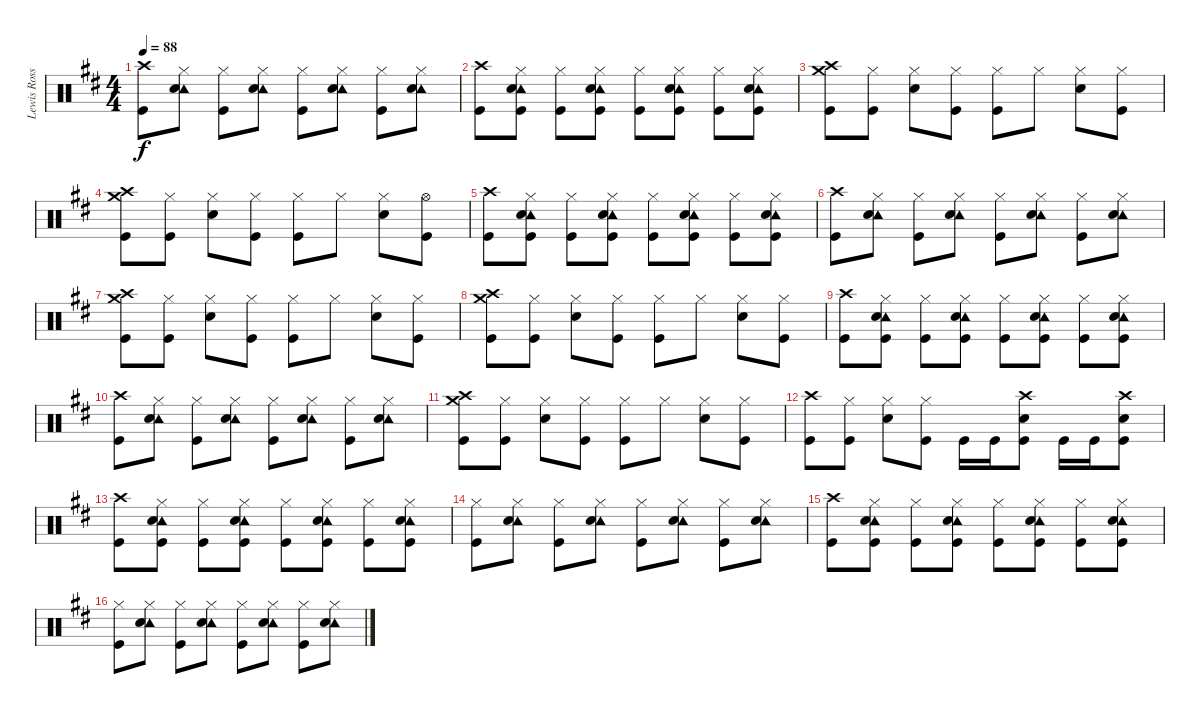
\track ("Lewis Ross Drums" "Lewis Ross") {instrument percussion}
\staff {score}
\articulation defaults
\ts (4 4)
\tempo 88
\clef neutral
\ks d
("Crash high (hit)" "Kick (hit)").8{dy f} ("Hi-Hat (closed)" "Tambourine (hit)" "Snare (hit) 2").8 ("Hi-Hat (closed)" "Kick (hit)").8 ("Hi-Hat (closed)" "Tambourine (hit)" "Snare (hit) 2").8 ("Hi-Hat (closed)" "Kick (hit)").8 ("Hi-Hat (closed)" "Tambourine (hit)" "Snare (hit) 2").8 ("Hi-Hat (closed)" "Kick (hit)").8 ("Hi-Hat (closed)" "Tambourine (hit)" "Snare (hit) 2").8 |
("Crash high (hit)" "Kick (hit)").8 ("Hi-Hat (closed)" "Tambourine (hit)" "Snare (hit) 2" "Kick (hit)").8 ("Hi-Hat (closed)" "Kick (hit)").8 ("Hi-Hat (closed)" "Tambourine (hit)" "Snare (hit) 2" "Kick (hit)").8 ("Hi-Hat (closed)" "Kick (hit)").8 ("Hi-Hat (closed)" "Tambourine (hit)" "Snare (hit) 2" "Kick (hit)").8 ("Hi-Hat (closed)" "Kick (hit)").8 ("Hi-Hat (closed)" "Tambourine (hit)" "Snare (hit) 2" "Kick (hit)").8 |
("Crash high (hit)" "Crash medium (hit)" "Kick (hit)").8 ("Hi-Hat (closed)" "Kick (hit)").8 ("Hi-Hat (closed)" "Snare (hit) 2").8 ("Hi-Hat (closed)" "Kick (hit)").8 ("Hi-Hat (closed)" "Kick (hit)").8 "Hi-Hat (closed)".8 ("Hi-Hat (closed)" "Snare (hit) 2").8 ("Hi-Hat (closed)" "Kick (hit)").8 |
("Crash high (hit)" "Crash medium (hit)" "Kick (hit)").8 ("Hi-Hat (closed)" "Kick (hit)").8 ("Hi-Hat (closed)" "Snare (hit) 2").8 ("Hi-Hat (closed)" "Kick (hit)").8 ("Hi-Hat (closed)" "Kick (hit)").8 "Hi-Hat (closed)".8 ("Hi-Hat (closed)" "Snare (hit) 2").8 ("Hi-Hat (open)" "Kick (hit)").8 |
("Crash high (hit)" "Kick (hit)").8 ("Hi-Hat (closed)" "Tambourine (hit)" "Snare (hit) 2" "Kick (hit)").8 ("Hi-Hat (closed)" "Kick (hit)").8 ("Hi-Hat (closed)" "Tambourine (hit)" "Snare (hit) 2" "Kick (hit)").8 ("Hi-Hat (closed)" "Kick (hit)").8 ("Hi-Hat (closed)" "Tambourine (hit)" "Snare (hit) 2" "Kick (hit)").8 ("Hi-Hat (closed)" "Kick (hit)").8 ("Hi-Hat (closed)" "Tambourine (hit)" "Snare (hit) 2" "Kick (hit)").8 |
("Crash high (hit)" "Kick (hit)").8 ("Hi-Hat (closed)" "Tambourine (hit)" "Snare (hit) 2").8 ("Hi-Hat (closed)" "Kick (hit)").8 ("Hi-Hat (closed)" "Tambourine (hit)" "Snare (hit) 2").8 ("Hi-Hat (closed)" "Kick (hit)").8 ("Hi-Hat (closed)" "Tambourine (hit)" "Snare (hit) 2").8 ("Hi-Hat (closed)" "Kick (hit)").8 ("Hi-Hat (closed)" "Tambourine (hit)" "Snare (hit) 2").8 |
("Crash high (hit)" "Crash medium (hit)" "Kick (hit)").8 ("Hi-Hat (closed)" "Kick (hit)").8 ("Hi-Hat (closed)" "Snare (hit) 2").8 ("Hi-Hat (closed)" "Kick (hit)").8 ("Hi-Hat (closed)" "Kick (hit)").8 "Hi-Hat (closed)".8 ("Hi-Hat (closed)" "Snare (hit) 2").8 ("Hi-Hat (closed)" "Kick (hit)").8 |
("Crash high (hit)" "Crash medium (hit)" "Kick (hit)").8 ("Hi-Hat (closed)" "Kick (hit)").8 ("Hi-Hat (closed)" "Snare (hit) 2").8 ("Hi-Hat (closed)" "Kick (hit)").8 ("Hi-Hat (closed)" "Kick (hit)").8 "Hi-Hat (closed)".8 ("Hi-Hat (closed)" "Snare (hit) 2").8 ("Hi-Hat (closed)" "Kick (hit)").8 |
("Crash high (hit)" "Kick (hit)").8 ("Hi-Hat (closed)" "Tambourine (hit)" "Snare (hit) 2" "Kick (hit)").8 ("Hi-Hat (closed)" "Kick (hit)").8 ("Hi-Hat (closed)" "Tambourine (hit)" "Snare (hit) 2" "Kick (hit)").8 ("Hi-Hat (closed)" "Kick (hit)").8 ("Hi-Hat (closed)" "Tambourine (hit)" "Snare (hit) 2" "Kick (hit)").8 ("Hi-Hat (closed)" "Kick (hit)").8 ("Hi-Hat (closed)" "Tambourine (hit)" "Snare (hit) 2" "Kick (hit)").8 |
("Crash high (hit)" "Kick (hit)").8 ("Hi-Hat (closed)" "Tambourine (hit)" "Snare (hit) 2").8 ("Hi-Hat (closed)" "Kick (hit)").8 ("Hi-Hat (closed)" "Tambourine (hit)" "Snare (hit) 2").8 ("Hi-Hat (closed)" "Kick (hit)").8 ("Hi-Hat (closed)" "Tambourine (hit)" "Snare (hit) 2").8 ("Hi-Hat (closed)" "Kick (hit)").8 ("Hi-Hat (closed)" "Tambourine (hit)" "Snare (hit) 2").8 |
("Crash high (hit)" "Crash medium (hit)" "Kick (hit)").8 ("Hi-Hat (closed)" "Kick (hit)").8 ("Hi-Hat (closed)" "Snare (hit) 2").8 ("Hi-Hat (closed)" "Kick (hit)").8 ("Hi-Hat (closed)" "Kick (hit)").8 "Hi-Hat (closed)".8 ("Hi-Hat (closed)" "Snare (hit) 2").8 ("Hi-Hat (closed)" "Kick (hit)").8 |
("Crash high (hit)" "Kick (hit)").8 ("Hi-Hat (closed)" "Kick (hit)").8 ("Hi-Hat (closed)" "Snare (hit) 2").8 ("Hi-Hat (closed)" "Kick (hit)").8 "Kick (hit)".16 "Kick (hit)".16 ("Crash high (hit)" "Snare (hit) 2" "Kick (hit)").8 "Kick (hit)".16 "Kick (hit)".16 ("Crash high (hit)" "Snare (hit) 2" "Kick (hit)").8 |
("Crash high (hit)" "Kick (hit)").8 ("Hi-Hat (closed)" "Tambourine (hit)" "Snare (hit) 2" "Kick (hit)").8 ("Hi-Hat (closed)" "Kick (hit)").8 ("Hi-Hat (closed)" "Tambourine (hit)" "Snare (hit) 2" "Kick (hit)").8 ("Hi-Hat (closed)" "Kick (hit)").8 ("Hi-Hat (closed)" "Tambourine (hit)" "Snare (hit) 2" "Kick (hit)").8 ("Hi-Hat (closed)" "Kick (hit)").8 ("Hi-Hat (closed)" "Tambourine (hit)" "Snare (hit) 2" "Kick (hit)").8 |
("Hi-Hat (closed)" "Kick (hit)").8 ("Hi-Hat (closed)" "Tambourine (hit)" "Snare (hit) 2").8 ("Hi-Hat (closed)" "Kick (hit)").8 ("Hi-Hat (closed)" "Tambourine (hit)" "Snare (hit) 2").8 ("Hi-Hat (closed)" "Kick (hit)").8 ("Hi-Hat (closed)" "Tambourine (hit)" "Snare (hit) 2").8 ("Hi-Hat (closed)" "Kick (hit)").8 ("Hi-Hat (closed)" "Tambourine (hit)" "Snare (hit) 2").8 |
("Crash high (hit)" "Kick (hit)").8 ("Hi-Hat (closed)" "Tambourine (hit)" "Snare (hit) 2" "Kick (hit)").8 ("Hi-Hat (closed)" "Kick (hit)").8 ("Hi-Hat (closed)" "Tambourine (hit)" "Snare (hit) 2" "Kick (hit)").8 ("Hi-Hat (closed)" "Kick (hit)").8 ("Hi-Hat (closed)" "Tambourine (hit)" "Snare (hit) 2" "Kick (hit)").8 ("Hi-Hat (closed)" "Kick (hit)").8 ("Hi-Hat (closed)" "Tambourine (hit)" "Snare (hit) 2" "Kick (hit)").8 |
("Hi-Hat (closed)" "Kick (hit)").8 ("Hi-Hat (closed)" "Tambourine (hit)" "Snare (hit) 2").8 ("Hi-Hat (closed)" "Kick (hit)").8 ("Hi-Hat (closed)" "Tambourine (hit)" "Snare (hit) 2").8 ("Hi-Hat (closed)" "Kick (hit)").8 ("Hi-Hat (closed)" "Tambourine (hit)" "Snare (hit) 2").8 ("Hi-Hat (closed)" "Kick (hit)").8 ("Hi-Hat (closed)" "Tambourine (hit)" "Snare (hit) 2").8
